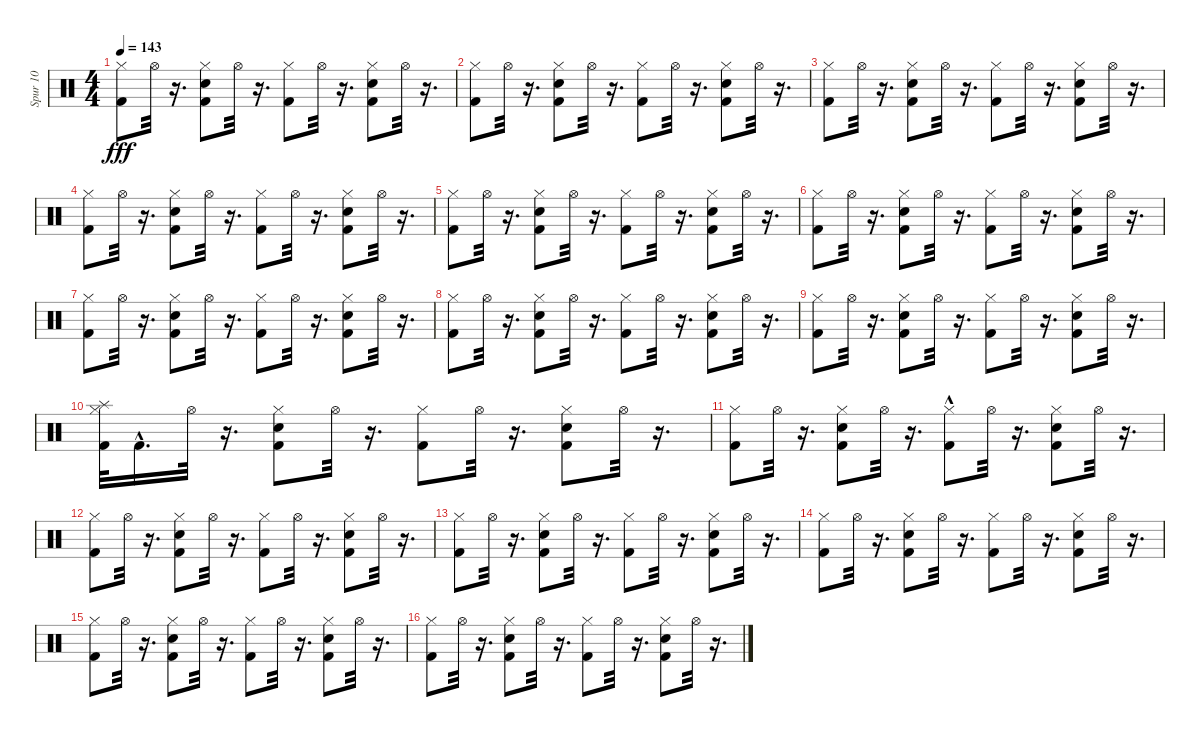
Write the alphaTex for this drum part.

\track ("Spur 10" "Spur 10") {instrument percussion}
\staff {score}
\articulation defaults
\ts (4 4)
\tempo 143
\clef neutral
\ks c
("Hi-Hat (closed)" "Kick (hit) 2").8{dy fff} "Hi-Hat (open)".32 r.16{d} ("Hi-Hat (closed)" "Electric Snare (hit)" "Kick (hit) 2").8 "Hi-Hat (open)".32 r.16{d} ("Hi-Hat (closed)" "Kick (hit) 2").8 "Hi-Hat (open)".32 r.16{d} ("Hi-Hat (closed)" "Electric Snare (hit)" "Kick (hit) 2").8 "Hi-Hat (open)".32 r.16{d} |
("Hi-Hat (closed)" "Kick (hit) 2").8 "Hi-Hat (open)".32 r.16{d} ("Hi-Hat (closed)" "Electric Snare (hit)" "Kick (hit) 2").8 "Hi-Hat (open)".32 r.16{d} ("Hi-Hat (closed)" "Kick (hit) 2").8 "Hi-Hat (open)".32 r.16{d} ("Hi-Hat (closed)" "Electric Snare (hit)" "Kick (hit) 2").8 "Hi-Hat (open)".32 r.16{d} |
("Hi-Hat (closed)" "Kick (hit) 2").8 "Hi-Hat (open)".32 r.16{d} ("Hi-Hat (closed)" "Electric Snare (hit)" "Kick (hit) 2").8 "Hi-Hat (open)".32 r.16{d} ("Hi-Hat (closed)" "Kick (hit) 2").8 "Hi-Hat (open)".32 r.16{d} ("Hi-Hat (closed)" "Electric Snare (hit)" "Kick (hit) 2").8 "Hi-Hat (open)".32 r.16{d} |
("Hi-Hat (closed)" "Kick (hit) 2").8 "Hi-Hat (open)".32 r.16{d} ("Hi-Hat (closed)" "Electric Snare (hit)" "Kick (hit) 2").8 "Hi-Hat (open)".32 r.16{d} ("Hi-Hat (closed)" "Kick (hit) 2").8 "Hi-Hat (open)".32 r.16{d} ("Hi-Hat (closed)" "Electric Snare (hit)" "Kick (hit) 2").8 "Hi-Hat (open)".32 r.16{d} |
("Hi-Hat (closed)" "Kick (hit) 2").8 "Hi-Hat (open)".32 r.16{d} ("Hi-Hat (closed)" "Electric Snare (hit)" "Kick (hit) 2").8 "Hi-Hat (open)".32 r.16{d} ("Hi-Hat (closed)" "Kick (hit) 2").8 "Hi-Hat (open)".32 r.16{d} ("Hi-Hat (closed)" "Electric Snare (hit)" "Kick (hit) 2").8 "Hi-Hat (open)".32 r.16{d} |
("Hi-Hat (closed)" "Kick (hit) 2").8 "Hi-Hat (open)".32 r.16{d} ("Hi-Hat (closed)" "Electric Snare (hit)" "Kick (hit) 2").8 "Hi-Hat (open)".32 r.16{d} ("Hi-Hat (closed)" "Kick (hit) 2").8 "Hi-Hat (open)".32 r.16{d} ("Hi-Hat (closed)" "Electric Snare (hit)" "Kick (hit) 2").8 "Hi-Hat (open)".32 r.16{d} |
("Hi-Hat (closed)" "Kick (hit) 2").8 "Hi-Hat (open)".32 r.16{d} ("Hi-Hat (closed)" "Electric Snare (hit)" "Kick (hit) 2").8 "Hi-Hat (open)".32 r.16{d} ("Hi-Hat (closed)" "Kick (hit) 2").8 "Hi-Hat (open)".32 r.16{d} ("Hi-Hat (closed)" "Electric Snare (hit)" "Kick (hit) 2").8 "Hi-Hat (open)".32 r.16{d} |
("Hi-Hat (closed)" "Kick (hit) 2").8 "Hi-Hat (open)".32 r.16{d} ("Hi-Hat (closed)" "Electric Snare (hit)" "Kick (hit) 2").8 "Hi-Hat (open)".32 r.16{d} ("Hi-Hat (closed)" "Kick (hit) 2").8 "Hi-Hat (open)".32 r.16{d} ("Hi-Hat (closed)" "Electric Snare (hit)" "Kick (hit) 2").8 "Hi-Hat (open)".32 r.16{d} |
("Hi-Hat (closed)" "Kick (hit) 2").8 "Hi-Hat (open)".32 r.16{d} ("Hi-Hat (closed)" "Electric Snare (hit)" "Kick (hit) 2").8 "Hi-Hat (open)".32 r.16{d} ("Hi-Hat (closed)" "Kick (hit) 2").8 "Hi-Hat (open)".32 r.16{d} ("Hi-Hat (closed)" "Electric Snare (hit)" "Kick (hit) 2").8 "Hi-Hat (open)".32 r.16{d} |
("Hi-Hat (closed)" "Kick (hit) 2" "Splash (hit)").32 "Kick (hit) 2"{hac}.16{d} "Hi-Hat (open)".32 r.16{d} ("Hi-Hat (closed)" "Electric Snare (hit)" "Kick (hit) 2").8 "Hi-Hat (open)".32 r.16{d} ("Hi-Hat (closed)" "Kick (hit) 2").8 "Hi-Hat (open)".32 r.16{d} ("Hi-Hat (closed)" "Electric Snare (hit)" "Kick (hit) 2").8 "Hi-Hat (open)".32 r.16{d} |
("Hi-Hat (closed)" "Kick (hit) 2").8 "Hi-Hat (open)".32 r.16{d} ("Hi-Hat (closed)" "Electric Snare (hit)" "Kick (hit) 2").8 "Hi-Hat (open)".32 r.16{d} ("Hi-Hat (closed)" "Kick (hit) 2"{hac}).8 "Hi-Hat (open)".32 r.16{d} ("Hi-Hat (closed)" "Electric Snare (hit)" "Kick (hit) 2").8 "Hi-Hat (open)".32 r.16{d} |
("Hi-Hat (closed)" "Kick (hit) 2").8 "Hi-Hat (open)".32 r.16{d} ("Hi-Hat (closed)" "Electric Snare (hit)" "Kick (hit) 2").8 "Hi-Hat (open)".32 r.16{d} ("Hi-Hat (closed)" "Kick (hit) 2").8 "Hi-Hat (open)".32 r.16{d} ("Hi-Hat (closed)" "Electric Snare (hit)" "Kick (hit) 2").8 "Hi-Hat (open)".32 r.16{d} |
("Hi-Hat (closed)" "Kick (hit) 2").8 "Hi-Hat (open)".32 r.16{d} ("Hi-Hat (closed)" "Electric Snare (hit)" "Kick (hit) 2").8 "Hi-Hat (open)".32 r.16{d} ("Hi-Hat (closed)" "Kick (hit) 2").8 "Hi-Hat (open)".32 r.16{d} ("Hi-Hat (closed)" "Electric Snare (hit)" "Kick (hit) 2").8 "Hi-Hat (open)".32 r.16{d} |
("Hi-Hat (closed)" "Kick (hit) 2").8 "Hi-Hat (open)".32 r.16{d} ("Hi-Hat (closed)" "Electric Snare (hit)" "Kick (hit) 2").8 "Hi-Hat (open)".32 r.16{d} ("Hi-Hat (closed)" "Kick (hit) 2").8 "Hi-Hat (open)".32 r.16{d} ("Hi-Hat (closed)" "Electric Snare (hit)" "Kick (hit) 2").8 "Hi-Hat (open)".32 r.16{d} |
("Hi-Hat (closed)" "Kick (hit) 2").8 "Hi-Hat (open)".32 r.16{d} ("Hi-Hat (closed)" "Electric Snare (hit)" "Kick (hit) 2").8 "Hi-Hat (open)".32 r.16{d} ("Hi-Hat (closed)" "Kick (hit) 2").8 "Hi-Hat (open)".32 r.16{d} ("Hi-Hat (closed)" "Electric Snare (hit)" "Kick (hit) 2").8 "Hi-Hat (open)".32 r.16{d} |
("Hi-Hat (closed)" "Kick (hit) 2").8 "Hi-Hat (open)".32 r.16{d} ("Hi-Hat (closed)" "Electric Snare (hit)" "Kick (hit) 2").8 "Hi-Hat (open)".32 r.16{d} ("Hi-Hat (closed)" "Kick (hit) 2").8 "Hi-Hat (open)".32 r.16{d} ("Hi-Hat (closed)" "Electric Snare (hit)" "Kick (hit) 2").8 "Hi-Hat (open)".32 r.16{d}
